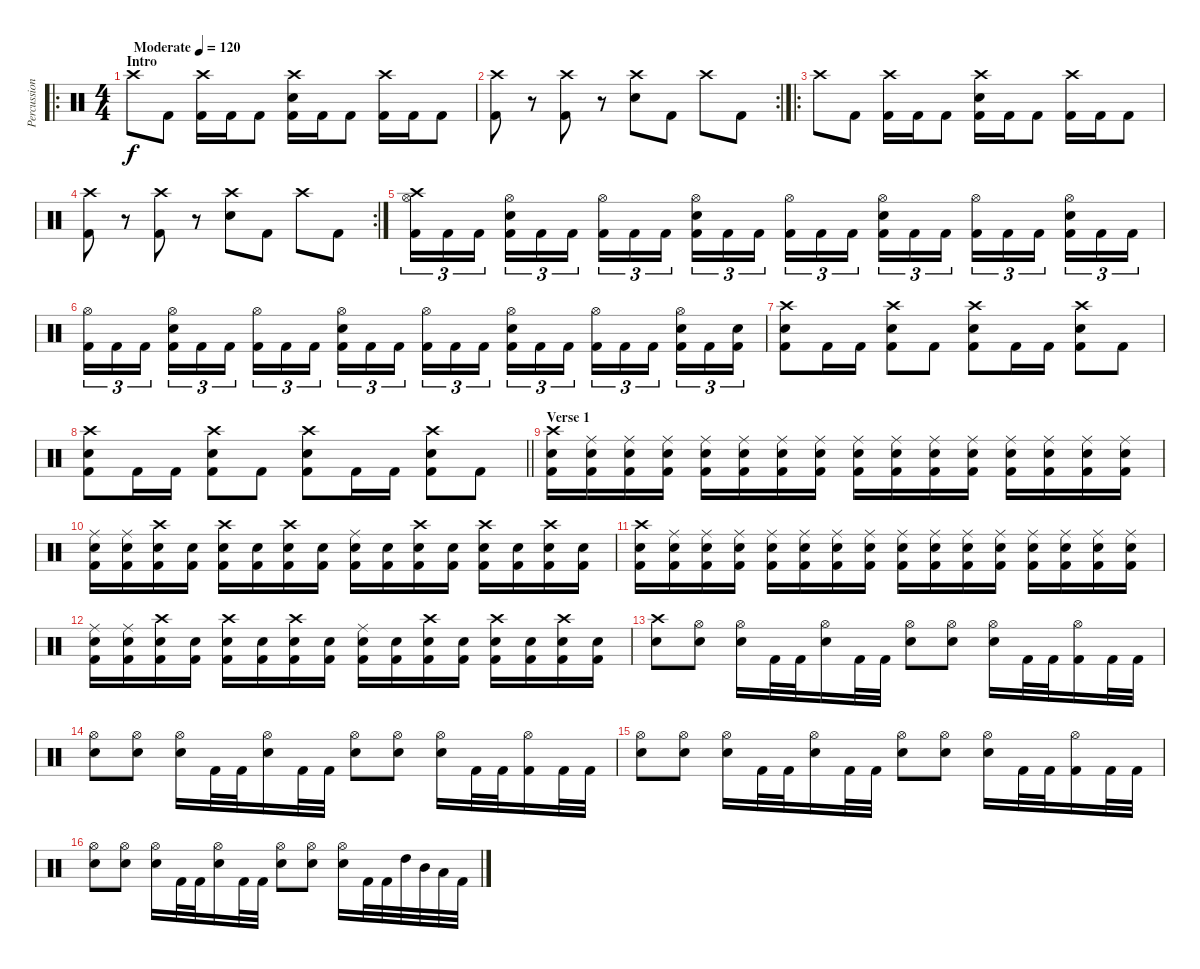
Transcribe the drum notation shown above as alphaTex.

\track ("Percussions" "Percussion") {instrument percussion}
\staff {score}
\articulation defaults
\ro
\ts (4 4)
\section ("" "Intro")
\tempo (120 "Moderate")
\clef neutral
\ks c "Crash high (hit)".8{dy f} "Kick (hit) 2".8
("Crash high (hit)" "Kick (hit) 2").16 "Kick (hit) 2".16 "Kick (hit) 2".8 ("Crash high (hit)" "Electric Snare (hit)" "Kick (hit) 2").16 "Kick (hit) 2".16 "Kick (hit) 2".8 ("Crash high (hit)" "Kick (hit) 2").16 "Kick (hit) 2".16 "Kick (hit) 2".8 |
\rc 2
("Crash high (hit)" "Kick (hit) 2").8 r.8 ("Crash high (hit)" "Kick (hit) 2").8 r.8 ("Crash high (hit)" "Electric Snare (hit)").8 "Kick (hit) 2".8 "Crash high (hit)".8 "Kick (hit) 2".8 |
\ro "Crash high (hit)".8 "Kick (hit) 2".8
("Crash high (hit)" "Kick (hit) 2").16 "Kick (hit) 2".16 "Kick (hit) 2".8 ("Crash high (hit)" "Electric Snare (hit)" "Kick (hit) 2").16 "Kick (hit) 2".16 "Kick (hit) 2".8 ("Crash high (hit)" "Kick (hit) 2").16 "Kick (hit) 2".16 "Kick (hit) 2".8 |
\rc 2
("Crash high (hit)" "Kick (hit) 2").8 r.8 ("Crash high (hit)" "Kick (hit) 2").8 r.8 ("Crash high (hit)" "Electric Snare (hit)").8 "Kick (hit) 2".8 "Crash high (hit)".8 "Kick (hit) 2".8 |
("Hi-Hat (open)" "Crash high (hit)" "Kick (hit) 2").16{tu (3 2)} "Kick (hit) 2".16{tu (3 2)} "Kick (hit) 2".16{tu (3 2) beam splitsecondary} ("Hi-Hat (open)" "Electric Snare (hit)" "Kick (hit) 2").16{tu (3 2)} "Kick (hit) 2".16{tu (3 2)} "Kick (hit) 2".16{tu (3 2)} ("Hi-Hat (open)" "Kick (hit) 2").16{tu (3 2)} "Kick (hit) 2".16{tu (3 2)} "Kick (hit) 2".16{tu (3 2) beam splitsecondary} ("Hi-Hat (open)" "Electric Snare (hit)" "Kick (hit) 2").16{tu (3 2)} "Kick (hit) 2".16{tu (3 2)} "Kick (hit) 2".16{tu (3 2)} ("Hi-Hat (open)" "Kick (hit) 2").16{tu (3 2)} "Kick (hit) 2".16{tu (3 2)} "Kick (hit) 2".16{tu (3 2) beam splitsecondary} ("Hi-Hat (open)" "Electric Snare (hit)" "Kick (hit) 2").16{tu (3 2)} "Kick (hit) 2".16{tu (3 2)} "Kick (hit) 2".16{tu (3 2)} ("Hi-Hat (open)" "Kick (hit) 2").16{tu (3 2)} "Kick (hit) 2".16{tu (3 2)} "Kick (hit) 2".16{tu (3 2) beam splitsecondary} ("Hi-Hat (open)" "Electric Snare (hit)" "Kick (hit) 2").16{tu (3 2)} "Kick (hit) 2".16{tu (3 2)} "Kick (hit) 2".16{tu (3 2)} |
("Hi-Hat (open)" "Kick (hit) 2").16{tu (3 2)} "Kick (hit) 2".16{tu (3 2)} "Kick (hit) 2".16{tu (3 2) beam splitsecondary} ("Hi-Hat (open)" "Electric Snare (hit)" "Kick (hit) 2").16{tu (3 2)} "Kick (hit) 2".16{tu (3 2)} "Kick (hit) 2".16{tu (3 2)} ("Hi-Hat (open)" "Kick (hit) 2").16{tu (3 2)} "Kick (hit) 2".16{tu (3 2)} "Kick (hit) 2".16{tu (3 2) beam splitsecondary} ("Hi-Hat (open)" "Electric Snare (hit)" "Kick (hit) 2").16{tu (3 2)} "Kick (hit) 2".16{tu (3 2)} "Kick (hit) 2".16{tu (3 2)} ("Hi-Hat (open)" "Kick (hit) 2").16{tu (3 2)} "Kick (hit) 2".16{tu (3 2)} "Kick (hit) 2".16{tu (3 2) beam splitsecondary} ("Hi-Hat (open)" "Electric Snare (hit)" "Kick (hit) 2").16{tu (3 2)} "Kick (hit) 2".16{tu (3 2)} "Kick (hit) 2".16{tu (3 2)} ("Hi-Hat (open)" "Kick (hit) 2").16{tu (3 2)} "Kick (hit) 2".16{tu (3 2)} "Kick (hit) 2".16{tu (3 2) beam splitsecondary} ("Hi-Hat (open)" "Electric Snare (hit)" "Kick (hit) 2").16{tu (3 2)} "Kick (hit) 2".16{tu (3 2)} ("Electric Snare (hit)" "Kick (hit) 2").16{tu (3 2)} |
("Kick (hit) 2" "Snare (hit) 2" "Crash high (hit)").8 "Kick (hit) 2".16 "Kick (hit) 2".16 ("Kick (hit) 2" "Snare (hit) 2" "Crash high (hit)").8 "Kick (hit) 2".8 ("Kick (hit) 2" "Snare (hit) 2" "Crash high (hit)").8 "Kick (hit) 2".16 "Kick (hit) 2".16 ("Kick (hit) 2" "Snare (hit) 2" "Crash high (hit)").8 "Kick (hit) 2".8 |
\barLineRight lightlight
("Kick (hit) 2" "Snare (hit) 2" "Crash high (hit)").8 "Kick (hit) 2".16 "Kick (hit) 2".16 ("Kick (hit) 2" "Snare (hit) 2" "Crash high (hit)").8 "Kick (hit) 2".8 ("Kick (hit) 2" "Snare (hit) 2" "Crash high (hit)").8 "Kick (hit) 2".16 "Kick (hit) 2".16 ("Kick (hit) 2" "Snare (hit) 2" "Crash high (hit)").8 "Kick (hit) 2".8 |
\section ("" "Verse 1")
("Crash high (hit)" "Snare (hit) 2" "Kick (hit) 2").16 ("Ride (middle)" "Snare (hit) 2" "Kick (hit) 2").16 ("Ride (middle)" "Snare (hit) 2" "Kick (hit) 2").16 ("Ride (middle)" "Snare (hit) 2" "Kick (hit) 2").16 ("Ride (middle)" "Snare (hit) 2" "Kick (hit) 2").16 ("Ride (middle)" "Snare (hit) 2" "Kick (hit) 2").16 ("Ride (middle)" "Snare (hit) 2" "Kick (hit) 2").16 ("Ride (middle)" "Snare (hit) 2" "Kick (hit) 2").16 ("Ride (middle)" "Snare (hit) 2" "Kick (hit) 2").16 ("Ride (middle)" "Snare (hit) 2" "Kick (hit) 2").16 ("Ride (middle)" "Snare (hit) 2" "Kick (hit) 2").16 ("Ride (middle)" "Snare (hit) 2" "Kick (hit) 2").16 ("Ride (middle)" "Snare (hit) 2" "Kick (hit) 2").16 ("Ride (middle)" "Snare (hit) 2" "Kick (hit) 2").16 ("Ride (middle)" "Snare (hit) 2" "Kick (hit) 2").16 ("Ride (middle)" "Snare (hit) 2" "Kick (hit) 2").16 |
("Ride (middle)" "Snare (hit) 2" "Kick (hit) 2").16 ("Ride (middle)" "Snare (hit) 2" "Kick (hit) 2").16 ("Crash high (hit)" "Snare (hit) 2" "Kick (hit) 2").16 ("Snare (hit) 2" "Kick (hit) 2").16 ("Crash high (hit)" "Snare (hit) 2" "Kick (hit) 2").16 ("Snare (hit) 2" "Kick (hit) 2").16 ("Crash high (hit)" "Snare (hit) 2" "Kick (hit) 2").16 ("Snare (hit) 2" "Kick (hit) 2").16 ("Ride (middle)" "Snare (hit) 2" "Kick (hit) 2").16 ("Snare (hit) 2" "Kick (hit) 2").16 ("Crash high (hit)" "Snare (hit) 2" "Kick (hit) 2").16 ("Snare (hit) 2" "Kick (hit) 2").16 ("Crash high (hit)" "Snare (hit) 2" "Kick (hit) 2").16 ("Snare (hit) 2" "Kick (hit) 2").16 ("Crash high (hit)" "Snare (hit) 2" "Kick (hit) 2").16 ("Snare (hit) 2" "Kick (hit) 2").16 |
("Crash high (hit)" "Snare (hit) 2" "Kick (hit) 2").16 ("Ride (middle)" "Snare (hit) 2" "Kick (hit) 2").16 ("Ride (middle)" "Snare (hit) 2" "Kick (hit) 2").16 ("Ride (middle)" "Snare (hit) 2" "Kick (hit) 2").16 ("Ride (middle)" "Snare (hit) 2" "Kick (hit) 2").16 ("Ride (middle)" "Snare (hit) 2" "Kick (hit) 2").16 ("Ride (middle)" "Snare (hit) 2" "Kick (hit) 2").16 ("Ride (middle)" "Snare (hit) 2" "Kick (hit) 2").16 ("Ride (middle)" "Snare (hit) 2" "Kick (hit) 2").16 ("Ride (middle)" "Snare (hit) 2" "Kick (hit) 2").16 ("Ride (middle)" "Snare (hit) 2" "Kick (hit) 2").16 ("Ride (middle)" "Snare (hit) 2" "Kick (hit) 2").16 ("Ride (middle)" "Snare (hit) 2" "Kick (hit) 2").16 ("Ride (middle)" "Snare (hit) 2" "Kick (hit) 2").16 ("Ride (middle)" "Snare (hit) 2" "Kick (hit) 2").16 ("Ride (middle)" "Snare (hit) 2" "Kick (hit) 2").16 |
("Ride (middle)" "Snare (hit) 2" "Kick (hit) 2").16 ("Ride (middle)" "Snare (hit) 2" "Kick (hit) 2").16 ("Crash high (hit)" "Snare (hit) 2" "Kick (hit) 2").16 ("Snare (hit) 2" "Kick (hit) 2").16 ("Crash high (hit)" "Snare (hit) 2" "Kick (hit) 2").16 ("Snare (hit) 2" "Kick (hit) 2").16 ("Crash high (hit)" "Snare (hit) 2" "Kick (hit) 2").16 ("Snare (hit) 2" "Kick (hit) 2").16 ("Ride (middle)" "Snare (hit) 2" "Kick (hit) 2").16 ("Snare (hit) 2" "Kick (hit) 2").16 ("Crash high (hit)" "Snare (hit) 2" "Kick (hit) 2").16 ("Snare (hit) 2" "Kick (hit) 2").16 ("Crash high (hit)" "Snare (hit) 2" "Kick (hit) 2").16 ("Snare (hit) 2" "Kick (hit) 2").16 ("Crash high (hit)" "Snare (hit) 2" "Kick (hit) 2").16 ("Snare (hit) 2" "Kick (hit) 2").16 |
("Crash high (hit)" "Snare (hit) 2").8 ("Hi-Hat (open)" "Snare (hit) 2").8 ("Hi-Hat (open)" "Snare (hit) 2").16 "Kick (hit) 2".32 "Kick (hit) 2".32 ("Hi-Hat (open)" "Snare (hit) 2").16 "Kick (hit) 2".32 "Kick (hit) 2".32 ("Hi-Hat (open)" "Snare (hit) 2").8 ("Hi-Hat (open)" "Snare (hit) 2").8 ("Hi-Hat (open)" "Snare (hit) 2").16 "Kick (hit) 2".32 "Kick (hit) 2".32 ("Hi-Hat (open)" "Kick (hit) 2").16 "Kick (hit) 2".32 "Kick (hit) 2".32 |
("Hi-Hat (open)" "Snare (hit) 2").8 ("Hi-Hat (open)" "Snare (hit) 2").8 ("Hi-Hat (open)" "Snare (hit) 2").16 "Kick (hit) 2".32 "Kick (hit) 2".32 ("Hi-Hat (open)" "Snare (hit) 2").16 "Kick (hit) 2".32 "Kick (hit) 2".32 ("Hi-Hat (open)" "Snare (hit) 2").8 ("Hi-Hat (open)" "Snare (hit) 2").8 ("Hi-Hat (open)" "Snare (hit) 2").16 "Kick (hit) 2".32 "Kick (hit) 2".32 ("Hi-Hat (open)" "Kick (hit) 2").16 "Kick (hit) 2".32 "Kick (hit) 2".32 |
("Hi-Hat (open)" "Snare (hit) 2").8 ("Hi-Hat (open)" "Snare (hit) 2").8 ("Hi-Hat (open)" "Snare (hit) 2").16 "Kick (hit) 2".32 "Kick (hit) 2".32 ("Hi-Hat (open)" "Snare (hit) 2").16 "Kick (hit) 2".32 "Kick (hit) 2".32 ("Hi-Hat (open)" "Snare (hit) 2").8 ("Hi-Hat (open)" "Snare (hit) 2").8 ("Hi-Hat (open)" "Snare (hit) 2").16 "Kick (hit) 2".32 "Kick (hit) 2".32 ("Hi-Hat (open)" "Kick (hit) 2").16 "Kick (hit) 2".32 "Kick (hit) 2".32 |
("Hi-Hat (open)" "Snare (hit) 2").8 ("Hi-Hat (open)" "Snare (hit) 2").8 ("Hi-Hat (open)" "Snare (hit) 2").16 "Kick (hit) 2".32 "Kick (hit) 2".32 ("Hi-Hat (open)" "Snare (hit) 2").16 "Kick (hit) 2".32 "Kick (hit) 2".32 ("Hi-Hat (open)" "Snare (hit) 2").8 ("Hi-Hat (open)" "Snare (hit) 2").8 ("Hi-Hat (open)" "Snare (hit) 2").16 "Kick (hit) 2".32 "Kick (hit) 2".32 "High Tom (hit)".32 "Mid Tom (hit)".32 "Low Tom (hit)".32 "Kick (hit) 2".32
